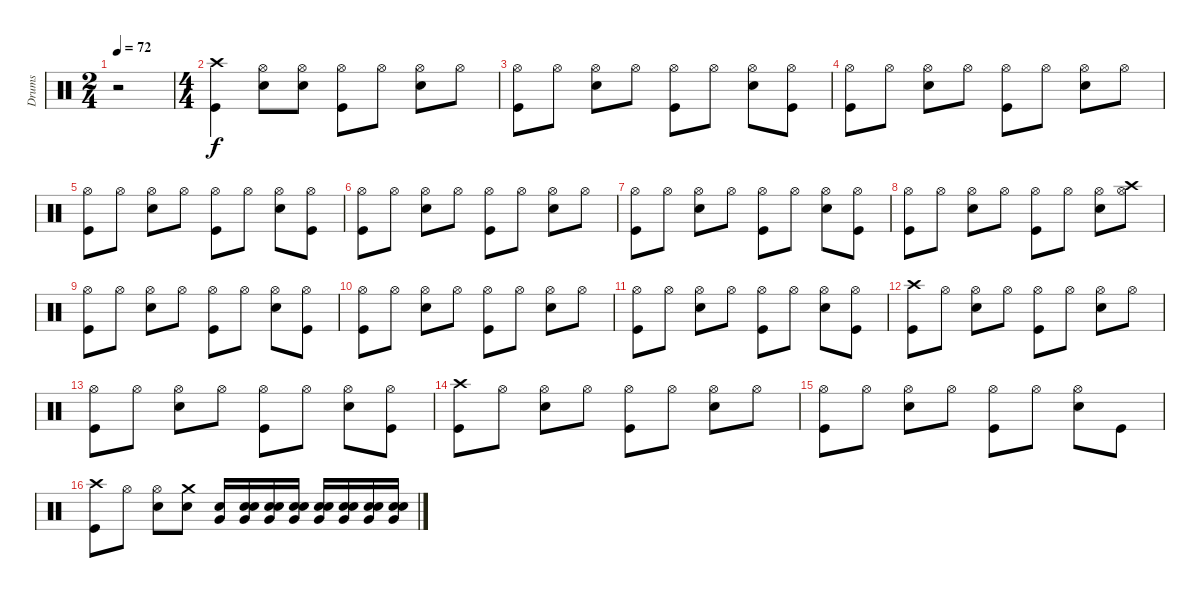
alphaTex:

\track ("Drums" "Drums") {instrument percussion}
\staff {score}
\articulation defaults
\ts (2 4)
\tempo 72
\clef neutral
\ks c
r.2{dy f} |
\ts (4 4)
("Kick (hit)" "Crash high (hit)").4 ("Snare (hit) 2" "Hi-Hat (open)").8 ("Snare (hit) 2" "Hi-Hat (open)").8 ("Hi-Hat (open)" "Kick (hit)").8 "Hi-Hat (open)".8 ("Snare (hit) 2" "Hi-Hat (open)").8 "Hi-Hat (open)".8 |
("Kick (hit)" "Hi-Hat (open)").8 "Hi-Hat (open)".8 ("Snare (hit) 2" "Hi-Hat (open)").8 "Hi-Hat (open)".8 ("Kick (hit)" "Hi-Hat (open)").8 "Hi-Hat (open)".8 ("Snare (hit) 2" "Hi-Hat (open)").8 ("Kick (hit)" "Hi-Hat (open)").8 |
("Kick (hit)" "Hi-Hat (open)").8 "Hi-Hat (open)".8 ("Snare (hit) 2" "Hi-Hat (open)").8 "Hi-Hat (open)".8 ("Kick (hit)" "Hi-Hat (open)").8 "Hi-Hat (open)".8 ("Snare (hit) 2" "Hi-Hat (open)").8 "Hi-Hat (open)".8 |
("Kick (hit)" "Hi-Hat (open)").8 "Hi-Hat (open)".8 ("Snare (hit) 2" "Hi-Hat (open)").8 "Hi-Hat (open)".8 ("Kick (hit)" "Hi-Hat (open)").8 "Hi-Hat (open)".8 ("Snare (hit) 2" "Hi-Hat (open)").8 ("Kick (hit)" "Hi-Hat (open)").8 |
("Kick (hit)" "Hi-Hat (open)").8 "Hi-Hat (open)".8 ("Snare (hit) 2" "Hi-Hat (open)").8 "Hi-Hat (open)".8 ("Kick (hit)" "Hi-Hat (open)").8 "Hi-Hat (open)".8 ("Snare (hit) 2" "Hi-Hat (open)").8 "Hi-Hat (open)".8 |
("Kick (hit)" "Hi-Hat (open)").8 "Hi-Hat (open)".8 ("Snare (hit) 2" "Hi-Hat (open)").8 "Hi-Hat (open)".8 ("Kick (hit)" "Hi-Hat (open)").8 "Hi-Hat (open)".8 ("Snare (hit) 2" "Hi-Hat (open)").8 ("Kick (hit)" "Hi-Hat (open)").8 |
("Kick (hit)" "Hi-Hat (open)").8 "Hi-Hat (open)".8 ("Snare (hit) 2" "Hi-Hat (open)").8 "Hi-Hat (open)".8 ("Kick (hit)" "Hi-Hat (open)").8 "Hi-Hat (open)".8 ("Snare (hit) 2" "Hi-Hat (open)").8 ("Hi-Hat (open)" "Crash high (hit)").8 |
("Kick (hit)" "Hi-Hat (open)").8 "Hi-Hat (open)".8 ("Snare (hit) 2" "Hi-Hat (open)").8 "Hi-Hat (open)".8 ("Kick (hit)" "Hi-Hat (open)").8 "Hi-Hat (open)".8 ("Snare (hit) 2" "Hi-Hat (open)").8 ("Kick (hit)" "Hi-Hat (open)").8 |
("Kick (hit)" "Hi-Hat (open)").8 "Hi-Hat (open)".8 ("Snare (hit) 2" "Hi-Hat (open)").8 "Hi-Hat (open)".8 ("Kick (hit)" "Hi-Hat (open)").8 "Hi-Hat (open)".8 ("Snare (hit) 2" "Hi-Hat (open)").8 "Hi-Hat (open)".8 |
("Kick (hit)" "Hi-Hat (open)").8 "Hi-Hat (open)".8 ("Snare (hit) 2" "Hi-Hat (open)").8 "Hi-Hat (open)".8 ("Kick (hit)" "Hi-Hat (open)").8 "Hi-Hat (open)".8 ("Snare (hit) 2" "Hi-Hat (open)").8 ("Kick (hit)" "Hi-Hat (open)").8 |
("Kick (hit)" "Crash high (hit)").8 "Hi-Hat (open)".8 ("Snare (hit) 2" "Hi-Hat (open)").8 "Hi-Hat (open)".8 ("Kick (hit)" "Hi-Hat (open)").8 "Hi-Hat (open)".8 ("Snare (hit) 2" "Hi-Hat (open)").8 "Hi-Hat (open)".8 |
("Kick (hit)" "Hi-Hat (open)").8 "Hi-Hat (open)".8 ("Snare (hit) 2" "Hi-Hat (open)").8 "Hi-Hat (open)".8 ("Kick (hit)" "Hi-Hat (open)").8 "Hi-Hat (open)".8 ("Snare (hit) 2" "Hi-Hat (open)").8 ("Kick (hit)" "Hi-Hat (open)").8 |
("Kick (hit)" "Crash high (hit)").8 "Hi-Hat (open)".8 ("Snare (hit) 2" "Hi-Hat (open)").8 "Hi-Hat (open)".8 ("Kick (hit)" "Hi-Hat (open)").8 "Hi-Hat (open)".8 ("Snare (hit) 2" "Hi-Hat (open)").8 "Hi-Hat (open)".8 |
("Kick (hit)" "Hi-Hat (open)").8 "Hi-Hat (open)".8 ("Snare (hit) 2" "Hi-Hat (open)").8 "Hi-Hat (open)".8 ("Kick (hit)" "Hi-Hat (open)").8 "Hi-Hat (open)".8 ("Snare (hit) 2" "Hi-Hat (open)").8 "Kick (hit)".8 |
("Crash high (hit)" "Kick (hit)").8 "Hi-Hat (open)".8 ("Snare (hit) 2" "Hi-Hat (open)").8 ("Snare (hit) 2" "Crash medium (hit)").8 ("Very Low Tom (hit)" "Snare (hit) 2").16 ("Snare (hit)" "Very Low Tom (hit)" "Snare (hit) 2").16 ("Snare (hit)" "Very Low Tom (hit)" "Snare (hit) 2").16 ("Snare (hit)" "Very Low Tom (hit)" "Snare (hit) 2").16 ("Snare (hit)" "Very Low Tom (hit)" "Snare (hit) 2").16 ("Snare (hit)" "Very Low Tom (hit)" "Snare (hit) 2").16 ("Snare (hit)" "Very Low Tom (hit)" "Snare (hit) 2").16 ("Snare (hit)" "Very Low Tom (hit)" "Snare (hit) 2").16
